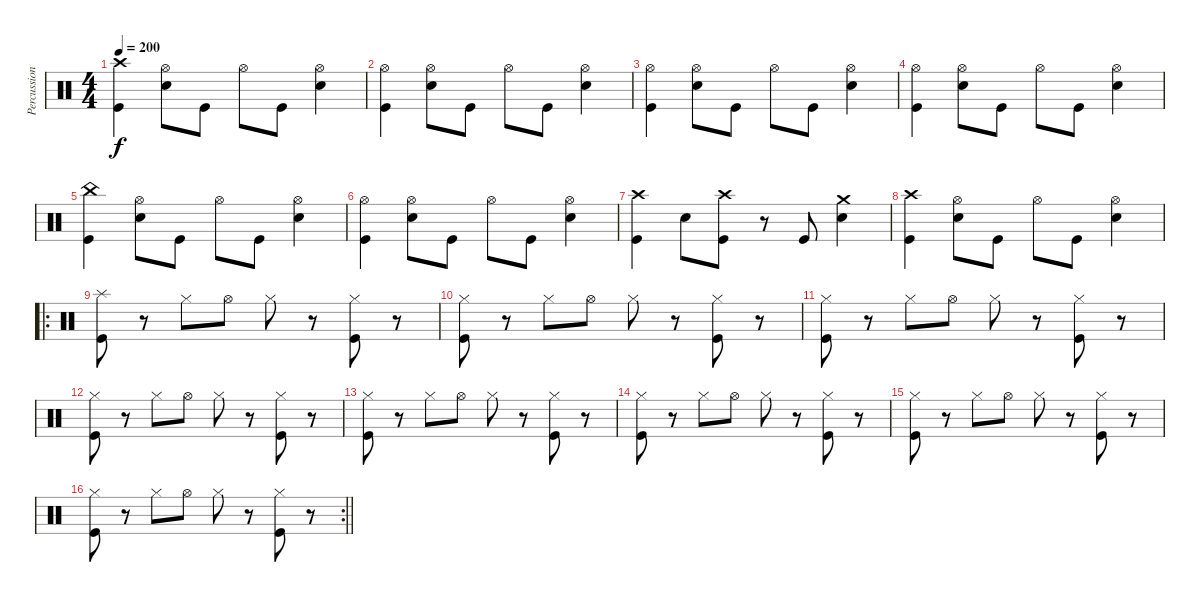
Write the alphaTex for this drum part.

\track ("Percussion" "Percussion") {instrument percussion}
\staff {score}
\articulation defaults
\ts (4 4)
\tempo 200
\clef neutral
\ks c
("Crash high (hit)" "Kick (hit)").4{dy f} ("Snare (hit) 2" "Hi-Hat (open)").8 "Kick (hit)".8 "Hi-Hat (open)".8 "Kick (hit)".8 ("Snare (hit) 2" "Hi-Hat (open)").4 |
("Hi-Hat (open)" "Kick (hit)").4 ("Snare (hit) 2" "Hi-Hat (open)").8 "Kick (hit)".8 "Hi-Hat (open)".8 "Kick (hit)".8 ("Snare (hit) 2" "Hi-Hat (open)").4 |
("Kick (hit)" "Hi-Hat (open)").4 ("Snare (hit) 2" "Hi-Hat (open)").8 "Kick (hit)".8 "Hi-Hat (open)".8 "Kick (hit)".8 ("Snare (hit) 2" "Hi-Hat (open)").4 |
("Kick (hit)" "Hi-Hat (open)").4 ("Snare (hit) 2" "Hi-Hat (open)").8 "Kick (hit)".8 "Hi-Hat (open)".8 "Kick (hit)".8 ("Snare (hit) 2" "Hi-Hat (open)").4 |
("China (hit)" "Kick (hit)").4 ("Snare (hit) 2" "Hi-Hat (open)").8 "Kick (hit)".8 "Hi-Hat (open)".8 "Kick (hit)".8 ("Snare (hit) 2" "Hi-Hat (open)").4 |
("Kick (hit)" "Hi-Hat (open)").4 ("Snare (hit) 2" "Hi-Hat (open)").8 "Kick (hit)".8 "Hi-Hat (open)".8 "Kick (hit)".8 ("Snare (hit) 2" "Hi-Hat (open)").4 |
("Kick (hit)" "Crash high (hit)").4 "Snare (hit) 2".8 ("Kick (hit)" "Crash high (hit)").8 r.8 "Kick (hit)".8 ("Snare (hit) 2" "Crash medium (hit)").4 |
("Kick (hit)" "Crash high (hit)").4 ("Snare (hit) 2" "Hi-Hat (open)").8 "Kick (hit)".8 "Hi-Hat (open)".8 "Kick (hit)".8 ("Snare (hit) 2" "Hi-Hat (open)").4 |
\ro
("Kick (hit)" "Splash (hit)").8 r.8 "Hi-Hat (closed)".8 "Hi-Hat (open)".8 "Hi-Hat (closed)".8 r.8 ("Hi-Hat (closed)" "Kick (hit)").8 r.8 |
("Kick (hit)" "Hi-Hat (closed)").8 r.8 "Hi-Hat (closed)".8 "Hi-Hat (open)".8 "Hi-Hat (closed)".8 r.8 ("Hi-Hat (closed)" "Kick (hit)").8 r.8 |
("Kick (hit)" "Hi-Hat (closed)").8 r.8 "Hi-Hat (closed)".8 "Hi-Hat (open)".8 "Hi-Hat (closed)".8 r.8 ("Hi-Hat (closed)" "Kick (hit)").8 r.8 |
("Kick (hit)" "Hi-Hat (closed)").8 r.8 "Hi-Hat (closed)".8 "Hi-Hat (open)".8 "Hi-Hat (closed)".8 r.8 ("Hi-Hat (closed)" "Kick (hit)").8 r.8 |
("Kick (hit)" "Hi-Hat (closed)").8 r.8 "Hi-Hat (closed)".8 "Hi-Hat (open)".8 "Hi-Hat (closed)".8 r.8 ("Hi-Hat (closed)" "Kick (hit)").8 r.8 |
("Kick (hit)" "Hi-Hat (closed)").8 r.8 "Hi-Hat (closed)".8 "Hi-Hat (open)".8 "Hi-Hat (closed)".8 r.8 ("Hi-Hat (closed)" "Kick (hit)").8 r.8 |
("Kick (hit)" "Hi-Hat (closed)").8 r.8 "Hi-Hat (closed)".8 "Hi-Hat (open)".8 "Hi-Hat (closed)".8 r.8 ("Hi-Hat (closed)" "Kick (hit)").8 r.8 |
\rc 2
\barLineRight lightlight
("Kick (hit)" "Hi-Hat (closed)").8 r.8 "Hi-Hat (closed)".8 "Hi-Hat (open)".8 "Hi-Hat (closed)".8 r.8 ("Hi-Hat (closed)" "Kick (hit)").8 r.8
